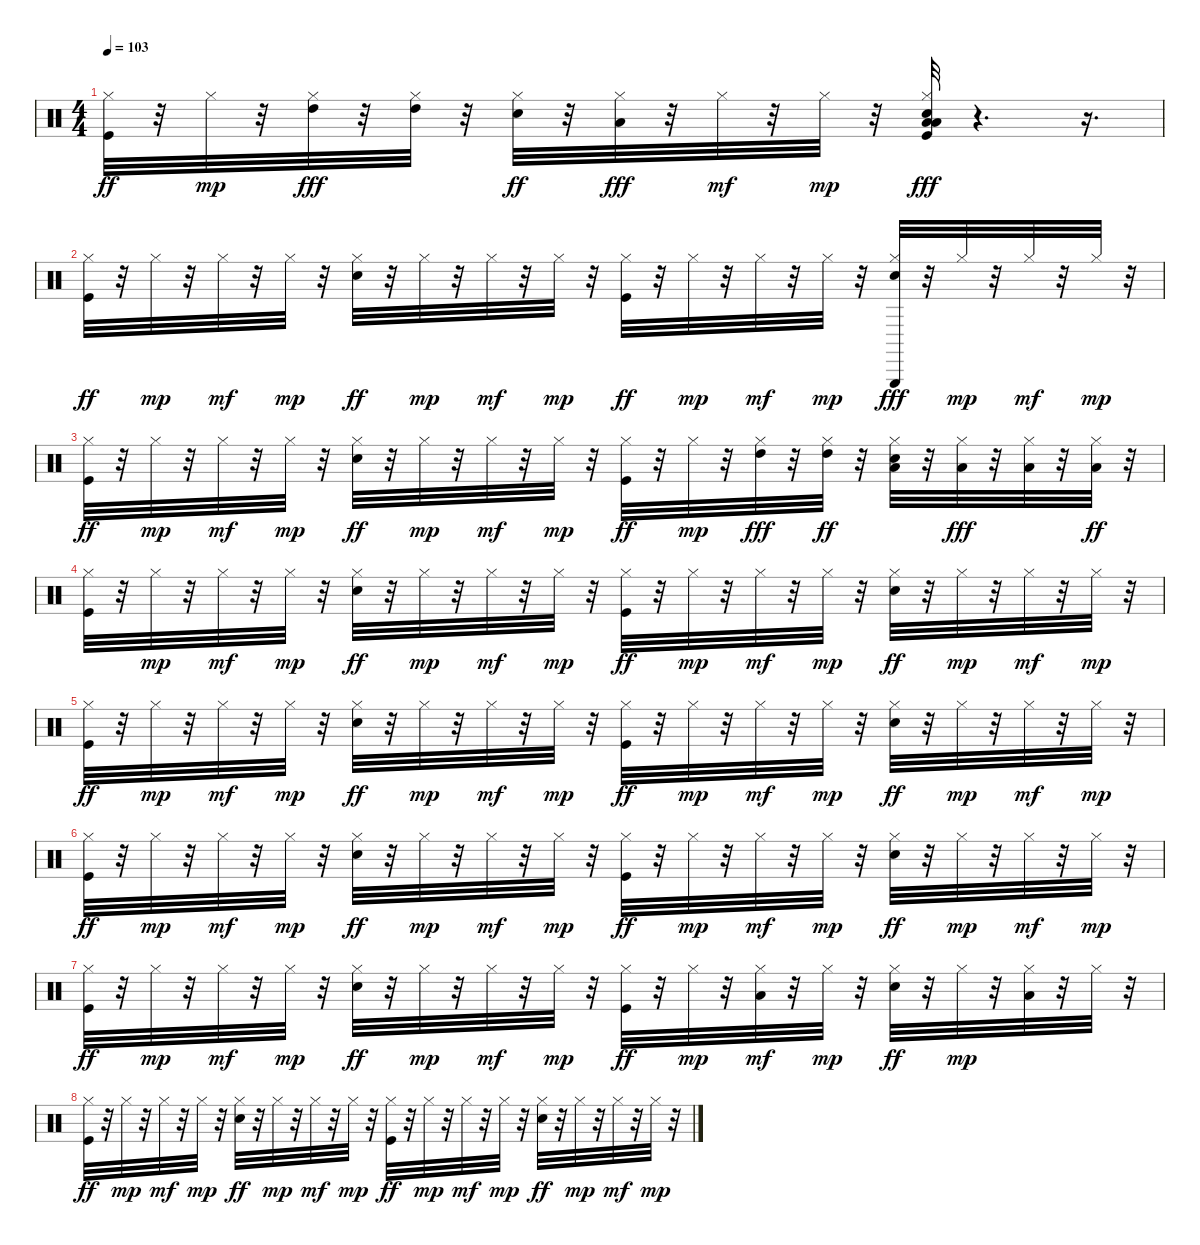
\track "" {instrument percussion}
\staff {score}
\articulation defaults
\ts (4 4)
\tempo 103
\clef neutral
\ks c
("Kick (hit)" "Hi-Hat (closed)").32{dy ff} r.32 "Hi-Hat (closed)".32{dy mp} r.32 ("Hi-Hat (closed)" "High Tom (hit)").32{dy fff} r.32 ("Hi-Hat (closed)" "High Tom (hit)").32 r.32 ("Snare (hit) 2" "Hi-Hat (closed)").32{dy ff} r.32 ("Hi-Hat (closed)" "Low Tom (hit)").32{dy fff} r.32 "Hi-Hat (closed)".32{dy mf} r.32 "Hi-Hat (closed)".32{dy mp} r.32 ("Kick (hit)" "Snare (hit) 2" "Hi-Hat (closed)" "Low Tom (hit)" "Low Floor Tom (hit)").32{dy fff} r.4{d} r.16{d} |
("Kick (hit)" "Hi-Hat (closed)").32{dy ff} r.32 "Hi-Hat (closed)".32{dy mp} r.32 "Hi-Hat (closed)".32{dy mf} r.32 "Hi-Hat (closed)".32{dy mp} r.32 ("Snare (hit) 2" "Hi-Hat (closed)").32{dy ff} r.32 "Hi-Hat (closed)".32{dy mp} r.32 "Hi-Hat (closed)".32{dy mf} r.32 "Hi-Hat (closed)".32{dy mp} r.32 ("Kick (hit)" "Hi-Hat (closed)").32{dy ff} r.32 "Hi-Hat (closed)".32{dy mp} r.32 "Hi-Hat (closed)".32{dy mf} r.32 "Hi-Hat (closed)".32{dy mp} r.32 ("Snare (hit) 2" "Hi-Hat (closed)" "Triangle (hit)").32{dy fff} r.32 "Hi-Hat (closed)".32{dy mp} r.32 "Hi-Hat (closed)".32{dy mf} r.32 "Hi-Hat (closed)".32{dy mp} r.32 |
("Kick (hit)" "Hi-Hat (closed)").32{dy ff} r.32 "Hi-Hat (closed)".32{dy mp} r.32 "Hi-Hat (closed)".32{dy mf} r.32 "Hi-Hat (closed)".32{dy mp} r.32 ("Snare (hit) 2" "Hi-Hat (closed)").32{dy ff} r.32 "Hi-Hat (closed)".32{dy mp} r.32 "Hi-Hat (closed)".32{dy mf} r.32 "Hi-Hat (closed)".32{dy mp} r.32 ("Kick (hit)" "Hi-Hat (closed)").32{dy ff} r.32 "Hi-Hat (closed)".32{dy mp} r.32 ("Hi-Hat (closed)" "High Tom (hit)").32{dy fff} r.32 ("Hi-Hat (closed)" "High Tom (hit)").32{dy ff} r.32 ("Snare (hit) 2" "Hi-Hat (closed)" "Low Tom (hit)").32 r.32 ("Hi-Hat (closed)" "Low Tom (hit)").32{dy fff} r.32 ("Hi-Hat (closed)" "Low Floor Tom (hit)").32 r.32 ("Hi-Hat (closed)" "Low Floor Tom (hit)").32{dy ff} r.32 |
("Kick (hit)" "Hi-Hat (closed)").32 r.32 "Hi-Hat (closed)".32{dy mp} r.32 "Hi-Hat (closed)".32{dy mf} r.32 "Hi-Hat (closed)".32{dy mp} r.32 ("Snare (hit) 2" "Hi-Hat (closed)").32{dy ff} r.32 "Hi-Hat (closed)".32{dy mp} r.32 "Hi-Hat (closed)".32{dy mf} r.32 "Hi-Hat (closed)".32{dy mp} r.32 ("Kick (hit)" "Hi-Hat (closed)").32{dy ff} r.32 "Hi-Hat (closed)".32{dy mp} r.32 "Hi-Hat (closed)".32{dy mf} r.32 "Hi-Hat (closed)".32{dy mp} r.32 ("Snare (hit) 2" "Hi-Hat (closed)").32{dy ff} r.32 "Hi-Hat (closed)".32{dy mp} r.32 "Hi-Hat (closed)".32{dy mf} r.32 "Hi-Hat (closed)".32{dy mp} r.32 |
("Kick (hit)" "Hi-Hat (closed)").32{dy ff} r.32 "Hi-Hat (closed)".32{dy mp} r.32 "Hi-Hat (closed)".32{dy mf} r.32 "Hi-Hat (closed)".32{dy mp} r.32 ("Snare (hit) 2" "Hi-Hat (closed)").32{dy ff} r.32 "Hi-Hat (closed)".32{dy mp} r.32 "Hi-Hat (closed)".32{dy mf} r.32 "Hi-Hat (closed)".32{dy mp} r.32 ("Kick (hit)" "Hi-Hat (closed)").32{dy ff} r.32 "Hi-Hat (closed)".32{dy mp} r.32 "Hi-Hat (closed)".32{dy mf} r.32 "Hi-Hat (closed)".32{dy mp} r.32 ("Snare (hit) 2" "Hi-Hat (closed)").32{dy ff} r.32 "Hi-Hat (closed)".32{dy mp} r.32 "Hi-Hat (closed)".32{dy mf} r.32 "Hi-Hat (closed)".32{dy mp} r.32 |
("Kick (hit)" "Hi-Hat (closed)").32{dy ff} r.32 "Hi-Hat (closed)".32{dy mp} r.32 "Hi-Hat (closed)".32{dy mf} r.32 "Hi-Hat (closed)".32{dy mp} r.32 ("Snare (hit) 2" "Hi-Hat (closed)").32{dy ff} r.32 "Hi-Hat (closed)".32{dy mp} r.32 "Hi-Hat (closed)".32{dy mf} r.32 "Hi-Hat (closed)".32{dy mp} r.32 ("Kick (hit)" "Hi-Hat (closed)").32{dy ff} r.32 "Hi-Hat (closed)".32{dy mp} r.32 "Hi-Hat (closed)".32{dy mf} r.32 "Hi-Hat (closed)".32{dy mp} r.32 ("Snare (hit) 2" "Hi-Hat (closed)").32{dy ff} r.32 "Hi-Hat (closed)".32{dy mp} r.32 "Hi-Hat (closed)".32{dy mf} r.32 "Hi-Hat (closed)".32{dy mp} r.32 |
("Kick (hit)" "Hi-Hat (closed)").32{dy ff} r.32 "Hi-Hat (closed)".32{dy mp} r.32 "Hi-Hat (closed)".32{dy mf} r.32 "Hi-Hat (closed)".32{dy mp} r.32 ("Snare (hit) 2" "Hi-Hat (closed)").32{dy ff} r.32 "Hi-Hat (closed)".32{dy mp} r.32 "Hi-Hat (closed)".32{dy mf} r.32 "Hi-Hat (closed)".32{dy mp} r.32 ("Kick (hit)" "Hi-Hat (closed)").32{dy ff} r.32 "Hi-Hat (closed)".32{dy mp} r.32 ("Hi-Hat (closed)" "Low Floor Tom (hit)").32{dy mf} r.32 "Hi-Hat (closed)".32{dy mp} r.32 ("Snare (hit) 2" "Hi-Hat (closed)").32{dy ff} r.32 "Hi-Hat (closed)".32{dy mp} r.32 ("Hi-Hat (closed)" "Low Floor Tom (hit)").32 r.32 "Hi-Hat (closed)".32 r.32 |
("Kick (hit)" "Hi-Hat (closed)").32{dy ff} r.32 "Hi-Hat (closed)".32{dy mp} r.32 "Hi-Hat (closed)".32{dy mf} r.32 "Hi-Hat (closed)".32{dy mp} r.32 ("Snare (hit) 2" "Hi-Hat (closed)").32{dy ff} r.32 "Hi-Hat (closed)".32{dy mp} r.32 "Hi-Hat (closed)".32{dy mf} r.32 "Hi-Hat (closed)".32{dy mp} r.32 ("Kick (hit)" "Hi-Hat (closed)").32{dy ff} r.32 "Hi-Hat (closed)".32{dy mp} r.32 "Hi-Hat (closed)".32{dy mf} r.32 "Hi-Hat (closed)".32{dy mp} r.32 ("Snare (hit) 2" "Hi-Hat (closed)").32{dy ff} r.32 "Hi-Hat (closed)".32{dy mp} r.32 "Hi-Hat (closed)".32{dy mf} r.32 "Hi-Hat (closed)".32{dy mp} r.32
